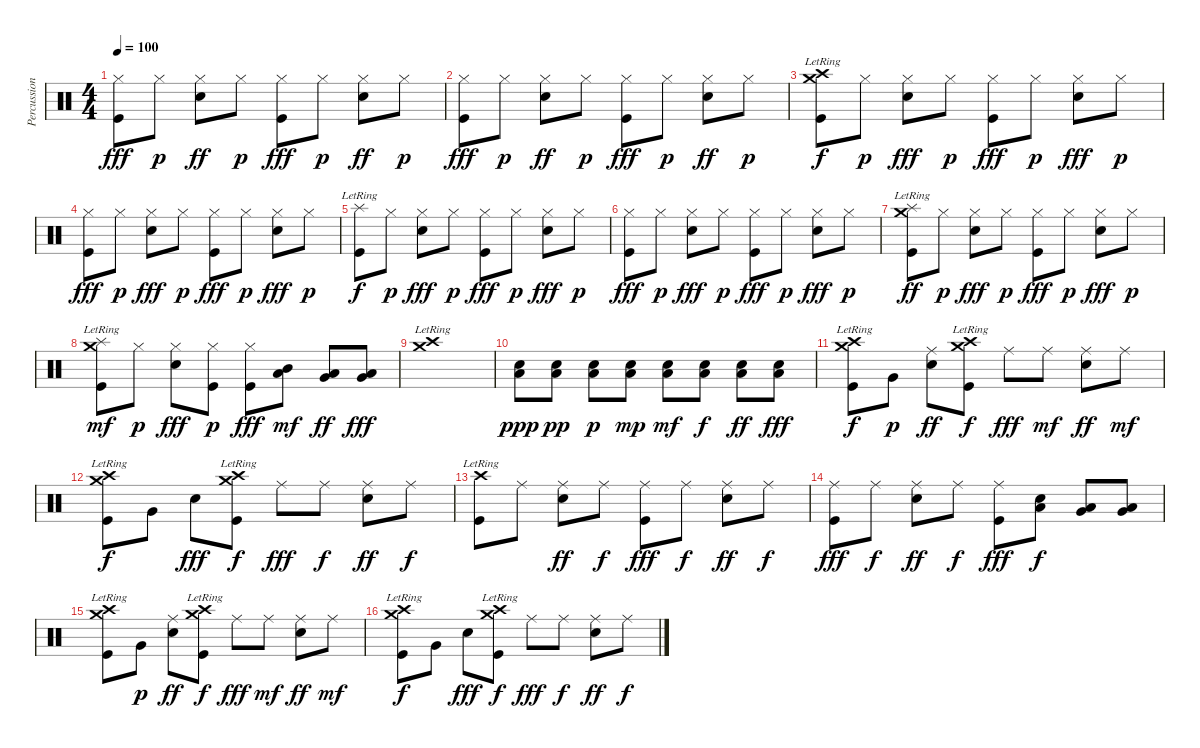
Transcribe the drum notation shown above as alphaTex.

\track ("Percussion" "Percussion") {instrument percussion}
\staff {score}
\articulation defaults
\ts (4 4)
\tempo 100
\clef neutral
\ks c
("Hi-Hat (closed)" "Kick (hit)").8{dy fff} "Hi-Hat (closed)".8{dy p} ("Hi-Hat (closed)" "Electric Snare (hit)").8{dy ff} "Hi-Hat (closed)".8{dy p} ("Hi-Hat (closed)" "Kick (hit)").8{dy fff} "Hi-Hat (closed)".8{dy p} ("Hi-Hat (closed)" "Electric Snare (hit)").8{dy ff} "Hi-Hat (closed)".8{dy p} |
("Hi-Hat (closed)" "Kick (hit)").8{dy fff} "Hi-Hat (closed)".8{dy p} ("Hi-Hat (closed)" "Electric Snare (hit)").8{dy ff} "Hi-Hat (closed)".8{dy p} ("Hi-Hat (closed)" "Kick (hit)").8{dy fff} "Hi-Hat (closed)".8{dy p} ("Hi-Hat (closed)" "Electric Snare (hit)").8{dy ff} "Hi-Hat (closed)".8{dy p} |
("Crash high (hit)"{lr} "Crash medium (hit)"{lr} "Kick (hit)").8{dy f} "Hi-Hat (closed)".8{dy p} ("Hi-Hat (closed)" "Electric Snare (hit)").8{dy fff} "Hi-Hat (closed)".8{dy p} ("Hi-Hat (closed)" "Kick (hit)").8{dy fff} "Hi-Hat (closed)".8{dy p} ("Hi-Hat (closed)" "Electric Snare (hit)").8{dy fff} "Hi-Hat (closed)".8{dy p} |
("Hi-Hat (closed)" "Kick (hit)").8{dy fff} "Hi-Hat (closed)".8{dy p} ("Hi-Hat (closed)" "Electric Snare (hit)").8{dy fff} "Hi-Hat (closed)".8{dy p} ("Hi-Hat (closed)" "Kick (hit)").8{dy fff} "Hi-Hat (closed)".8{dy p} ("Hi-Hat (closed)" "Electric Snare (hit)").8{dy fff} "Hi-Hat (closed)".8{dy p} |
("Splash (hit)"{lr} "Kick (hit)").8{dy f} "Hi-Hat (closed)".8{dy p} ("Hi-Hat (closed)" "Electric Snare (hit)").8{dy fff} "Hi-Hat (closed)".8{dy p} ("Hi-Hat (closed)" "Kick (hit)").8{dy fff} "Hi-Hat (closed)".8{dy p} ("Hi-Hat (closed)" "Electric Snare (hit)").8{dy fff} "Hi-Hat (closed)".8{dy p} |
("Hi-Hat (closed)" "Kick (hit)").8{dy fff} "Hi-Hat (closed)".8{dy p} ("Hi-Hat (closed)" "Electric Snare (hit)").8{dy fff} "Hi-Hat (closed)".8{dy p} ("Hi-Hat (closed)" "Kick (hit)").8{dy fff} "Hi-Hat (closed)".8{dy p} ("Hi-Hat (closed)" "Electric Snare (hit)").8{dy fff} "Hi-Hat (closed)".8{dy p} |
("Crash medium (hit)"{lr} "Splash (hit)"{lr} "Kick (hit)").8{dy ff} "Hi-Hat (closed)".8{dy p} ("Hi-Hat (closed)" "Electric Snare (hit)").8{dy fff} "Hi-Hat (closed)".8{dy p} ("Hi-Hat (closed)" "Kick (hit)").8{dy fff} "Hi-Hat (closed)".8{dy p} ("Hi-Hat (closed)" "Electric Snare (hit)").8{dy fff} "Hi-Hat (closed)".8{dy p} |
("Crash medium (hit)"{lr} "Splash (hit)"{lr} "Kick (hit)").8{dy mf} "Hi-Hat (closed)".8{dy p} ("Hi-Hat (closed)" "Electric Snare (hit)").8{dy fff} ("Hi-Hat (closed)" "Kick (hit)").8{dy p} ("Hi-Hat (closed)" "Kick (hit)").8{dy fff} ("Mid Tom (hit)" "Low Tom (hit)").8{dy mf} ("Low Tom (hit)" "Very Low Tom (hit)").8{dy ff} ("Very Low Tom (hit)" "Low Floor Tom (hit)").8{dy fff} |
("Crash medium (hit)"{lr} "Crash high (hit)"{lr}).1 |
("Low Floor Tom (hit)" "Electric Snare (hit)").8{dy ppp} ("Low Floor Tom (hit)" "Electric Snare (hit)").8{dy pp} ("Low Floor Tom (hit)" "Electric Snare (hit)").8{dy p} ("Low Floor Tom (hit)" "Electric Snare (hit)").8{dy mp} ("Low Floor Tom (hit)" "Electric Snare (hit)").8{dy mf} ("Low Floor Tom (hit)" "Electric Snare (hit)").8{dy f} ("Low Floor Tom (hit)" "Electric Snare (hit)").8{dy ff} ("Low Floor Tom (hit)" "Electric Snare (hit)").8{dy fff} |
("Crash high (hit)"{lr} "Crash medium (hit)"{lr} "Kick (hit)").8{dy f} "Very Low Tom (hit)".8{dy p} ("Ride (middle)" "Electric Snare (hit)").8{dy ff} ("Crash high (hit)"{lr} "Crash medium (hit)"{lr} "Kick (hit)").8{dy f} "Ride (middle)".8{dy fff} "Ride (middle)".8{dy mf} ("Ride (middle)" "Electric Snare (hit)").8{dy ff} "Ride (middle)".8{dy mf} |
("Crash high (hit)"{lr} "Crash medium (hit)"{lr} "Kick (hit)").8{dy f} "Very Low Tom (hit)".8 "Electric Snare (hit)".8{dy fff} ("Crash high (hit)"{lr} "Crash medium (hit)"{lr} "Kick (hit)").8{dy f} "Ride (middle)".8{dy fff} "Ride (middle)".8{dy f} ("Ride (middle)" "Electric Snare (hit)").8{dy ff} "Ride (middle)".8{dy f} |
("Crash high (hit)"{lr} "Kick (hit)").8 "Ride (middle)".8 ("Ride (middle)" "Electric Snare (hit)").8{dy ff} "Ride (middle)".8{dy f} ("Ride (middle)" "Kick (hit)").8{dy fff} "Ride (middle)".8{dy f} ("Ride (middle)" "Electric Snare (hit)").8{dy ff} "Ride (middle)".8{dy f} |
("Ride (middle)" "Kick (hit)").8{dy fff} "Ride (middle)".8{dy f} ("Ride (middle)" "Electric Snare (hit)").8{dy ff} "Ride (middle)".8{dy f} ("Ride (middle)" "Kick (hit)").8{dy fff} ("Low Tom (hit)" "Electric Snare (hit)").8{dy f} ("Low Tom (hit)" "Very Low Tom (hit)").8 ("Very Low Tom (hit)" "Low Floor Tom (hit)").8 |
("Crash high (hit)"{lr} "Crash medium (hit)"{lr} "Kick (hit)").8 "Very Low Tom (hit)".8{dy p} ("Ride (middle)" "Electric Snare (hit)").8{dy ff} ("Crash high (hit)"{lr} "Crash medium (hit)"{lr} "Kick (hit)").8{dy f} "Ride (middle)".8{dy fff} "Ride (middle)".8{dy mf} ("Ride (middle)" "Electric Snare (hit)").8{dy ff} "Ride (middle)".8{dy mf} |
("Crash high (hit)"{lr} "Crash medium (hit)"{lr} "Kick (hit)").8{dy f} "Very Low Tom (hit)".8 "Electric Snare (hit)".8{dy fff} ("Crash high (hit)"{lr} "Crash medium (hit)"{lr} "Kick (hit)").8{dy f} "Ride (middle)".8{dy fff} "Ride (middle)".8{dy f} ("Ride (middle)" "Electric Snare (hit)").8{dy ff} "Ride (middle)".8{dy f}
